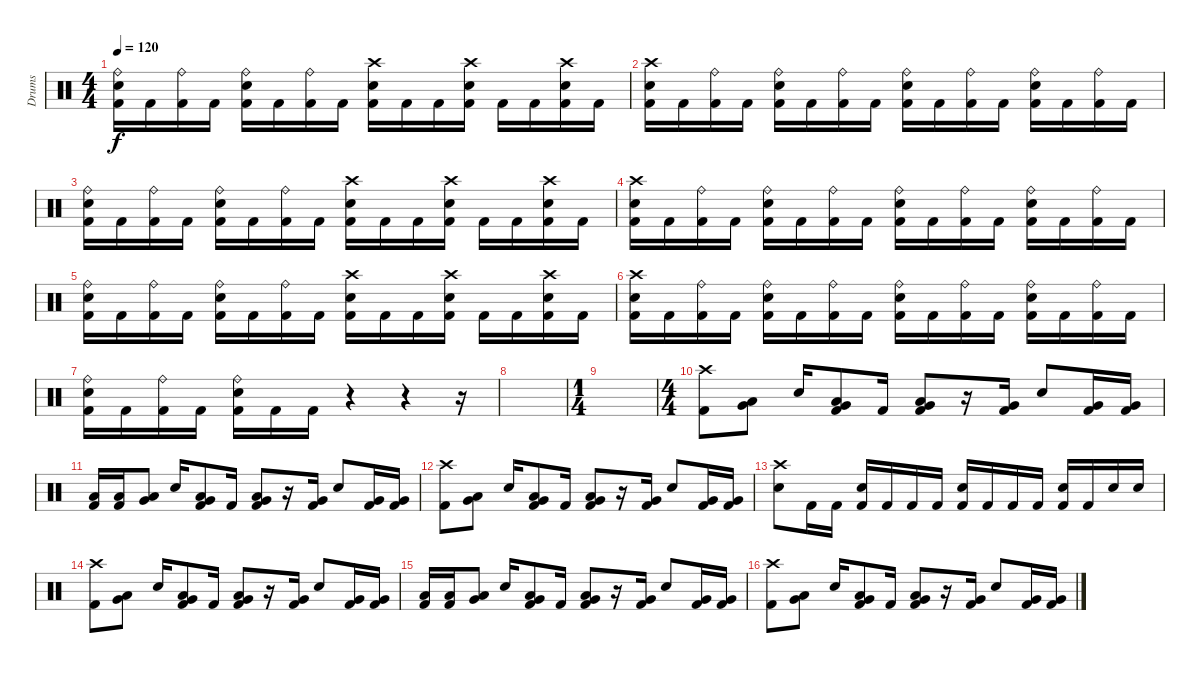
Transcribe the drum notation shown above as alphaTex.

\track ("Drums" "Drums") {instrument percussion}
\staff {score}
\articulation defaults
\ts (4 4)
\tempo 120
\clef neutral
\ks c
("Ride (bell)" "Electric Snare (hit)" "Kick (hit) 2").16{dy f} "Kick (hit) 2".16 ("Ride (bell)" "Kick (hit) 2").16 "Kick (hit) 2".16 ("Electric Snare (hit)" "Ride (bell)" "Kick (hit) 2").16 "Kick (hit) 2".16 ("Ride (bell)" "Kick (hit) 2").16 "Kick (hit) 2".16 ("Electric Snare (hit)" "Crash high (hit)" "Kick (hit) 2").16 "Kick (hit) 2".16 "Kick (hit) 2".16 ("Crash high (hit)" "Electric Snare (hit)" "Kick (hit) 2").16 "Kick (hit) 2".16 "Kick (hit) 2".16 ("Crash high (hit)" "Electric Snare (hit)" "Kick (hit) 2").16 "Kick (hit) 2".16 |
("Crash high (hit)" "Electric Snare (hit)" "Kick (hit) 2").16 "Kick (hit) 2".16 ("Ride (bell)" "Kick (hit) 2").16 "Kick (hit) 2".16 ("Electric Snare (hit)" "Ride (bell)" "Kick (hit) 2").16 "Kick (hit) 2".16 ("Ride (bell)" "Kick (hit) 2").16 "Kick (hit) 2".16 ("Electric Snare (hit)" "Ride (bell)" "Kick (hit) 2").16 "Kick (hit) 2".16 ("Ride (bell)" "Kick (hit) 2").16 "Kick (hit) 2".16 ("Electric Snare (hit)" "Ride (bell)" "Kick (hit) 2").16 "Kick (hit) 2".16 ("Ride (bell)" "Kick (hit) 2").16 "Kick (hit) 2".16 |
("Ride (bell)" "Electric Snare (hit)" "Kick (hit) 2").16 "Kick (hit) 2".16 ("Ride (bell)" "Kick (hit) 2").16 "Kick (hit) 2".16 ("Electric Snare (hit)" "Ride (bell)" "Kick (hit) 2").16 "Kick (hit) 2".16 ("Ride (bell)" "Kick (hit) 2").16 "Kick (hit) 2".16 ("Electric Snare (hit)" "Crash high (hit)" "Kick (hit) 2").16 "Kick (hit) 2".16 "Kick (hit) 2".16 ("Crash high (hit)" "Electric Snare (hit)" "Kick (hit) 2").16 "Kick (hit) 2".16 "Kick (hit) 2".16 ("Crash high (hit)" "Electric Snare (hit)" "Kick (hit) 2").16 "Kick (hit) 2".16 |
("Crash high (hit)" "Electric Snare (hit)" "Kick (hit) 2").16 "Kick (hit) 2".16 ("Ride (bell)" "Kick (hit) 2").16 "Kick (hit) 2".16 ("Electric Snare (hit)" "Ride (bell)" "Kick (hit) 2").16 "Kick (hit) 2".16 ("Ride (bell)" "Kick (hit) 2").16 "Kick (hit) 2".16 ("Electric Snare (hit)" "Ride (bell)" "Kick (hit) 2").16 "Kick (hit) 2".16 ("Ride (bell)" "Kick (hit) 2").16 "Kick (hit) 2".16 ("Electric Snare (hit)" "Ride (bell)" "Kick (hit) 2").16 "Kick (hit) 2".16 ("Ride (bell)" "Kick (hit) 2").16 "Kick (hit) 2".16 |
("Ride (bell)" "Electric Snare (hit)" "Kick (hit) 2").16 "Kick (hit) 2".16 ("Ride (bell)" "Kick (hit) 2").16 "Kick (hit) 2".16 ("Electric Snare (hit)" "Ride (bell)" "Kick (hit) 2").16 "Kick (hit) 2".16 ("Ride (bell)" "Kick (hit) 2").16 "Kick (hit) 2".16 ("Electric Snare (hit)" "Crash high (hit)" "Kick (hit) 2").16 "Kick (hit) 2".16 "Kick (hit) 2".16 ("Crash high (hit)" "Electric Snare (hit)" "Kick (hit) 2").16 "Kick (hit) 2".16 "Kick (hit) 2".16 ("Crash high (hit)" "Electric Snare (hit)" "Kick (hit) 2").16 "Kick (hit) 2".16 |
("Crash high (hit)" "Electric Snare (hit)" "Kick (hit) 2").16 "Kick (hit) 2".16 ("Ride (bell)" "Kick (hit) 2").16 "Kick (hit) 2".16 ("Electric Snare (hit)" "Ride (bell)" "Kick (hit) 2").16 "Kick (hit) 2".16 ("Ride (bell)" "Kick (hit) 2").16 "Kick (hit) 2".16 ("Electric Snare (hit)" "Ride (bell)" "Kick (hit) 2").16 "Kick (hit) 2".16 ("Ride (bell)" "Kick (hit) 2").16 "Kick (hit) 2".16 ("Electric Snare (hit)" "Ride (bell)" "Kick (hit) 2").16 "Kick (hit) 2".16 ("Ride (bell)" "Kick (hit) 2").16 "Kick (hit) 2".16 |
("Ride (bell)" "Electric Snare (hit)" "Kick (hit) 2").16 "Kick (hit) 2".16 ("Ride (bell)" "Kick (hit) 2").16 "Kick (hit) 2".16 ("Electric Snare (hit)" "Ride (bell)" "Kick (hit) 2").16 "Kick (hit) 2".16 "Kick (hit) 2".16 r.4 r.4 r.16 |
|
\ts (1 4)
|
\ts (4 4)
("Crash high (hit)" "Kick (hit) 2").8 ("Very Low Tom (hit)" "Low Floor Tom (hit)").8 "Electric Snare (hit)".16 ("Low Floor Tom (hit)" "Very Low Tom (hit)" "Kick (hit) 2").8 "Kick (hit) 2".16 ("Low Floor Tom (hit)" "Very Low Tom (hit)" "Kick (hit) 2").8 r.16 ("Very Low Tom (hit)" "Kick (hit) 2").16 "Electric Snare (hit)".8 ("Very Low Tom (hit)" "Kick (hit) 2").16 ("Very Low Tom (hit)" "Kick (hit) 2").16 |
("Low Tom (hit)" "Kick (hit) 2").16 ("Low Tom (hit)" "Kick (hit) 2").16 ("Very Low Tom (hit)" "Low Floor Tom (hit)").8 "Electric Snare (hit)".16 ("Low Floor Tom (hit)" "Very Low Tom (hit)" "Kick (hit) 2").8 "Kick (hit) 2".16 ("Low Floor Tom (hit)" "Very Low Tom (hit)" "Kick (hit) 2").8 r.16 ("Very Low Tom (hit)" "Kick (hit) 2").16 "Electric Snare (hit)".8 ("Very Low Tom (hit)" "Kick (hit) 2").16 ("Very Low Tom (hit)" "Kick (hit) 2").16 |
("Crash high (hit)" "Kick (hit) 2").8 ("Very Low Tom (hit)" "Low Floor Tom (hit)").8 "Electric Snare (hit)".16 ("Low Floor Tom (hit)" "Very Low Tom (hit)" "Kick (hit) 2").8 "Kick (hit) 2".16 ("Low Floor Tom (hit)" "Very Low Tom (hit)" "Kick (hit) 2").8 r.16 ("Very Low Tom (hit)" "Kick (hit) 2").16 "Electric Snare (hit)".8 ("Very Low Tom (hit)" "Kick (hit) 2").16 ("Very Low Tom (hit)" "Kick (hit) 2").16 |
("Crash high (hit)" "Electric Snare (hit)").8 "Kick (hit) 2".16 "Kick (hit) 2".16 ("Electric Snare (hit)" "Kick (hit) 2").16 "Kick (hit) 2".16 "Kick (hit) 2".16 "Kick (hit) 2".16 ("Electric Snare (hit)" "Kick (hit) 2").16 "Kick (hit) 2".16 "Kick (hit) 2".16 "Kick (hit) 2".16 ("Electric Snare (hit)" "Kick (hit) 2").16 "Kick (hit) 2".16 "Electric Snare (hit)".16 "Electric Snare (hit)".16 |
("Crash high (hit)" "Kick (hit) 2").8 ("Very Low Tom (hit)" "Low Floor Tom (hit)").8 "Electric Snare (hit)".16 ("Low Floor Tom (hit)" "Very Low Tom (hit)" "Kick (hit) 2").8 "Kick (hit) 2".16 ("Low Floor Tom (hit)" "Very Low Tom (hit)" "Kick (hit) 2").8 r.16 ("Very Low Tom (hit)" "Kick (hit) 2").16 "Electric Snare (hit)".8 ("Very Low Tom (hit)" "Kick (hit) 2").16 ("Very Low Tom (hit)" "Kick (hit) 2").16 |
("Low Tom (hit)" "Kick (hit) 2").16 ("Low Tom (hit)" "Kick (hit) 2").16 ("Very Low Tom (hit)" "Low Floor Tom (hit)").8 "Electric Snare (hit)".16 ("Low Floor Tom (hit)" "Very Low Tom (hit)" "Kick (hit) 2").8 "Kick (hit) 2".16 ("Low Floor Tom (hit)" "Very Low Tom (hit)" "Kick (hit) 2").8 r.16 ("Very Low Tom (hit)" "Kick (hit) 2").16 "Electric Snare (hit)".8 ("Very Low Tom (hit)" "Kick (hit) 2").16 ("Very Low Tom (hit)" "Kick (hit) 2").16 |
("Crash high (hit)" "Kick (hit) 2").8 ("Very Low Tom (hit)" "Low Floor Tom (hit)").8 "Electric Snare (hit)".16 ("Low Floor Tom (hit)" "Very Low Tom (hit)" "Kick (hit) 2").8 "Kick (hit) 2".16 ("Low Floor Tom (hit)" "Very Low Tom (hit)" "Kick (hit) 2").8 r.16 ("Very Low Tom (hit)" "Kick (hit) 2").16 "Electric Snare (hit)".8 ("Very Low Tom (hit)" "Kick (hit) 2").16 ("Very Low Tom (hit)" "Kick (hit) 2").16
